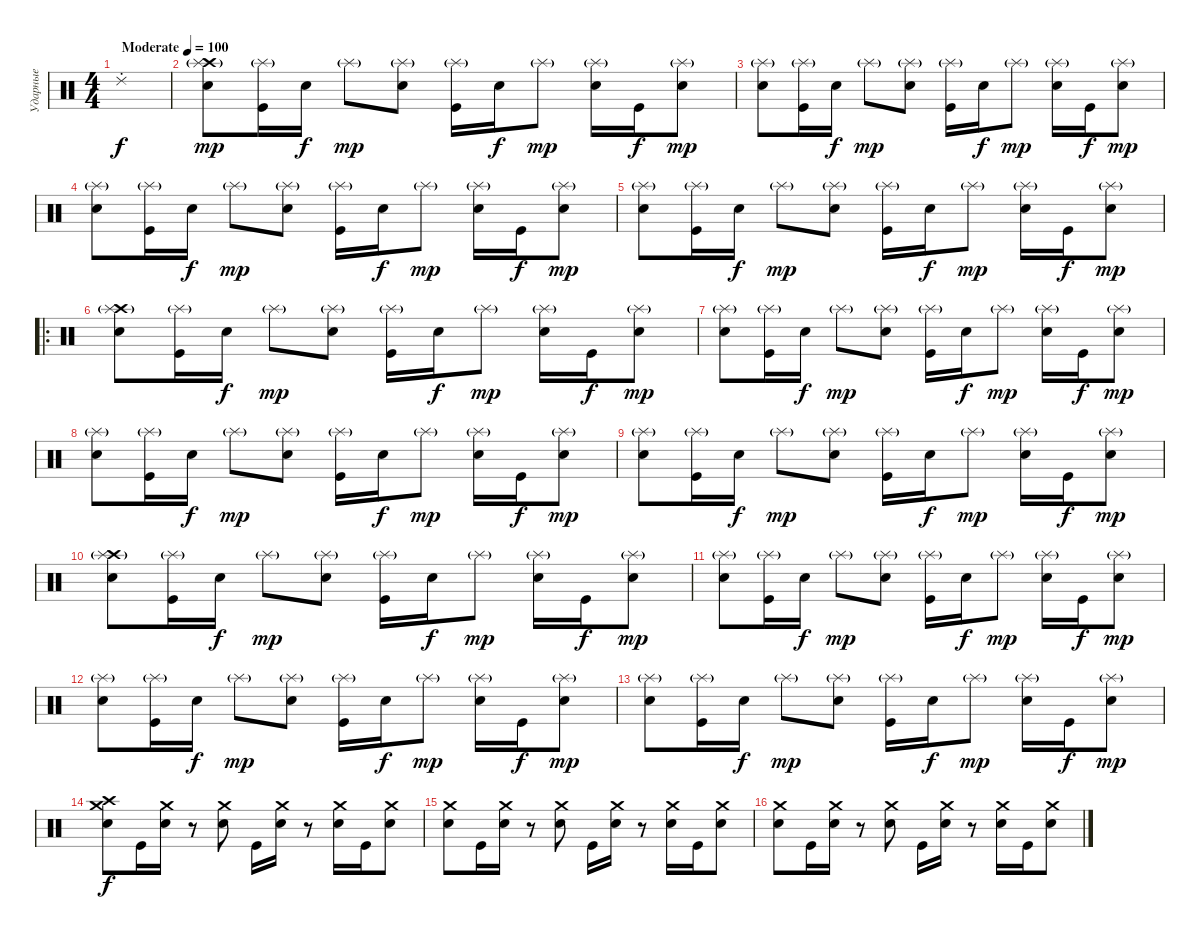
\track ("Ударные" "Ударные") {instrument percussion}
\staff {score}
\articulation defaults
\ts (4 4)
\tempo (100 "Moderate")
\clef neutral
\ks c "Ride (choke) 2".1{dy f volume 0}
|
("Crash high (hit)" "Splash (hit)"{g} "Electric Snare (hit)").8{dy mp volume 13} ("Splash (hit)"{g} "Kick (hit)").16 "Electric Snare (hit)".16{dy f} "Splash (hit)"{g}.8{dy mp} ("Splash (hit)"{g} "Electric Snare (hit)").8 ("Splash (hit)"{g} "Kick (hit)").16 "Electric Snare (hit)".16{dy f} "Splash (hit)"{g}.8{dy mp} ("Splash (hit)"{g} "Electric Snare (hit)").16 "Kick (hit)".16{dy f} ("Splash (hit)"{g} "Electric Snare (hit)").8{dy mp} |
("Splash (hit)"{g} "Electric Snare (hit)").8 ("Splash (hit)"{g} "Kick (hit)").16 "Electric Snare (hit)".16{dy f} "Splash (hit)"{g}.8{dy mp} ("Splash (hit)"{g} "Electric Snare (hit)").8 ("Splash (hit)"{g} "Kick (hit)").16 "Electric Snare (hit)".16{dy f} "Splash (hit)"{g}.8{dy mp} ("Splash (hit)"{g} "Electric Snare (hit)").16 "Kick (hit)".16{dy f} ("Splash (hit)"{g} "Electric Snare (hit)").8{dy mp} |
("Splash (hit)"{g} "Electric Snare (hit)").8 ("Splash (hit)"{g} "Kick (hit)").16 "Electric Snare (hit)".16{dy f} "Splash (hit)"{g}.8{dy mp} ("Splash (hit)"{g} "Electric Snare (hit)").8 ("Splash (hit)"{g} "Kick (hit)").16 "Electric Snare (hit)".16{dy f} "Splash (hit)"{g}.8{dy mp} ("Splash (hit)"{g} "Electric Snare (hit)").16 "Kick (hit)".16{dy f} ("Splash (hit)"{g} "Electric Snare (hit)").8{dy mp} |
("Splash (hit)"{g} "Electric Snare (hit)").8 ("Splash (hit)"{g} "Kick (hit)").16 "Electric Snare (hit)".16{dy f} "Splash (hit)"{g}.8{dy mp} ("Splash (hit)"{g} "Electric Snare (hit)").8 ("Splash (hit)"{g} "Kick (hit)").16 "Electric Snare (hit)".16{dy f} "Splash (hit)"{g}.8{dy mp} ("Splash (hit)"{g} "Electric Snare (hit)").16 "Kick (hit)".16{dy f} ("Splash (hit)"{g} "Electric Snare (hit)").8{dy mp} |
\ro
("Crash high (hit)" "Splash (hit)"{g} "Electric Snare (hit)").8 ("Splash (hit)"{g} "Kick (hit)").16 "Electric Snare (hit)".16{dy f} "Splash (hit)"{g}.8{dy mp} ("Splash (hit)"{g} "Electric Snare (hit)").8 ("Splash (hit)"{g} "Kick (hit)").16 "Electric Snare (hit)".16{dy f} "Splash (hit)"{g}.8{dy mp} ("Splash (hit)"{g} "Electric Snare (hit)").16 "Kick (hit)".16{dy f} ("Splash (hit)"{g} "Electric Snare (hit)").8{dy mp} |
("Splash (hit)"{g} "Electric Snare (hit)").8 ("Splash (hit)"{g} "Kick (hit)").16 "Electric Snare (hit)".16{dy f} "Splash (hit)"{g}.8{dy mp} ("Splash (hit)"{g} "Electric Snare (hit)").8 ("Splash (hit)"{g} "Kick (hit)").16 "Electric Snare (hit)".16{dy f} "Splash (hit)"{g}.8{dy mp} ("Splash (hit)"{g} "Electric Snare (hit)").16 "Kick (hit)".16{dy f} ("Splash (hit)"{g} "Electric Snare (hit)").8{dy mp} |
("Splash (hit)"{g} "Electric Snare (hit)").8 ("Splash (hit)"{g} "Kick (hit)").16 "Electric Snare (hit)".16{dy f} "Splash (hit)"{g}.8{dy mp} ("Splash (hit)"{g} "Electric Snare (hit)").8 ("Splash (hit)"{g} "Kick (hit)").16 "Electric Snare (hit)".16{dy f} "Splash (hit)"{g}.8{dy mp} ("Splash (hit)"{g} "Electric Snare (hit)").16 "Kick (hit)".16{dy f} ("Splash (hit)"{g} "Electric Snare (hit)").8{dy mp} |
("Splash (hit)"{g} "Electric Snare (hit)").8 ("Splash (hit)"{g} "Kick (hit)").16 "Electric Snare (hit)".16{dy f} "Splash (hit)"{g}.8{dy mp} ("Splash (hit)"{g} "Electric Snare (hit)").8 ("Splash (hit)"{g} "Kick (hit)").16 "Electric Snare (hit)".16{dy f} "Splash (hit)"{g}.8{dy mp} ("Splash (hit)"{g} "Electric Snare (hit)").16 "Kick (hit)".16{dy f} ("Splash (hit)"{g} "Electric Snare (hit)").8{dy mp} |
("Crash high (hit)" "Splash (hit)"{g} "Electric Snare (hit)").8 ("Splash (hit)"{g} "Kick (hit)").16 "Electric Snare (hit)".16{dy f} "Splash (hit)"{g}.8{dy mp} ("Splash (hit)"{g} "Electric Snare (hit)").8 ("Splash (hit)"{g} "Kick (hit)").16 "Electric Snare (hit)".16{dy f} "Splash (hit)"{g}.8{dy mp} ("Splash (hit)"{g} "Electric Snare (hit)").16 "Kick (hit)".16{dy f} ("Splash (hit)"{g} "Electric Snare (hit)").8{dy mp} |
("Splash (hit)"{g} "Electric Snare (hit)").8 ("Splash (hit)"{g} "Kick (hit)").16 "Electric Snare (hit)".16{dy f} "Splash (hit)"{g}.8{dy mp} ("Splash (hit)"{g} "Electric Snare (hit)").8 ("Splash (hit)"{g} "Kick (hit)").16 "Electric Snare (hit)".16{dy f} "Splash (hit)"{g}.8{dy mp} ("Splash (hit)"{g} "Electric Snare (hit)").16 "Kick (hit)".16{dy f} ("Splash (hit)"{g} "Electric Snare (hit)").8{dy mp} |
("Splash (hit)"{g} "Electric Snare (hit)").8 ("Splash (hit)"{g} "Kick (hit)").16 "Electric Snare (hit)".16{dy f} "Splash (hit)"{g}.8{dy mp} ("Splash (hit)"{g} "Electric Snare (hit)").8 ("Splash (hit)"{g} "Kick (hit)").16 "Electric Snare (hit)".16{dy f} "Splash (hit)"{g}.8{dy mp} ("Splash (hit)"{g} "Electric Snare (hit)").16 "Kick (hit)".16{dy f} ("Splash (hit)"{g} "Electric Snare (hit)").8{dy mp} |
("Splash (hit)"{g} "Electric Snare (hit)").8 ("Splash (hit)"{g} "Kick (hit)").16 "Electric Snare (hit)".16{dy f} "Splash (hit)"{g}.8{dy mp} ("Splash (hit)"{g} "Electric Snare (hit)").8 ("Splash (hit)"{g} "Kick (hit)").16 "Electric Snare (hit)".16{dy f} "Splash (hit)"{g}.8{dy mp} ("Splash (hit)"{g} "Electric Snare (hit)").16 "Kick (hit)".16{dy f} ("Splash (hit)"{g} "Electric Snare (hit)").8{dy mp} |
("Crash high (hit)" "Crash medium (hit)" "Electric Snare (hit)").8{dy f} "Kick (hit)".16 ("Crash medium (hit)" "Electric Snare (hit)").16 r.8 ("Crash medium (hit)" "Electric Snare (hit)").8 "Kick (hit)".16 ("Crash medium (hit)" "Electric Snare (hit)").16 r.8 ("Crash medium (hit)" "Electric Snare (hit)").16 "Kick (hit)".16 ("Crash medium (hit)" "Electric Snare (hit)").8 |
("Crash medium (hit)" "Electric Snare (hit)").8 "Kick (hit)".16 ("Crash medium (hit)" "Electric Snare (hit)").16 r.8 ("Crash medium (hit)" "Electric Snare (hit)").8 "Kick (hit)".16 ("Crash medium (hit)" "Electric Snare (hit)").16 r.8 ("Crash medium (hit)" "Electric Snare (hit)").16 "Kick (hit)".16 ("Crash medium (hit)" "Electric Snare (hit)").8 |
("Crash medium (hit)" "Electric Snare (hit)").8 "Kick (hit)".16 ("Crash medium (hit)" "Electric Snare (hit)").16 r.8 ("Crash medium (hit)" "Electric Snare (hit)").8 "Kick (hit)".16 ("Crash medium (hit)" "Electric Snare (hit)").16 r.8 ("Crash medium (hit)" "Electric Snare (hit)").16 "Kick (hit)".16 ("Crash medium (hit)" "Electric Snare (hit)").8
